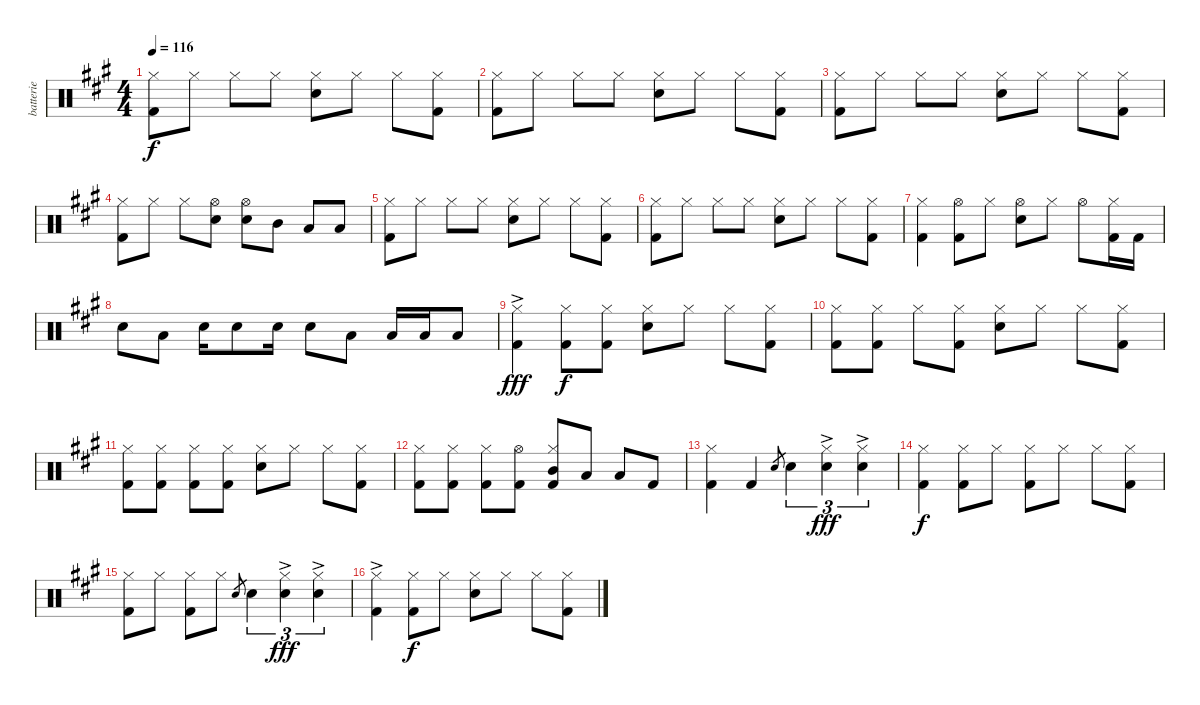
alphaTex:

\track ("batterie" "batterie") {instrument percussion}
\staff {score}
\articulation defaults
\ts (4 4)
\tempo 116
\clef neutral
\ks a
("Kick (hit) 2" "Hi-Hat (closed)").8{dy f} "Hi-Hat (closed)".8 "Hi-Hat (closed)".8 "Hi-Hat (closed)".8 ("Hi-Hat (closed)" "Snare (hit) 2").8 "Hi-Hat (closed)".8 "Hi-Hat (closed)".8 ("Kick (hit) 2" "Hi-Hat (closed)").8 |
("Kick (hit) 2" "Hi-Hat (closed)").8 "Hi-Hat (closed)".8 "Hi-Hat (closed)".8 "Hi-Hat (closed)".8 ("Hi-Hat (closed)" "Snare (hit) 2").8 "Hi-Hat (closed)".8 "Hi-Hat (closed)".8 ("Kick (hit) 2" "Hi-Hat (closed)").8 |
("Kick (hit) 2" "Hi-Hat (closed)").8 "Hi-Hat (closed)".8 "Hi-Hat (closed)".8 "Hi-Hat (closed)".8 ("Hi-Hat (closed)" "Snare (hit) 2").8 "Hi-Hat (closed)".8 "Hi-Hat (closed)".8 ("Kick (hit) 2" "Hi-Hat (closed)").8 |
("Hi-Hat (closed)" "Kick (hit) 2").8 "Hi-Hat (closed)".8 "Hi-Hat (closed)".8 ("Snare (hit) 2" "Hi-Hat (open)").8 ("Hi-Hat (open)" "Snare (hit) 2").8 "Mid Tom (hit)".8 "Low Tom (hit)".8 "Low Floor Tom (hit)".8 |
("Kick (hit) 2" "Hi-Hat (closed)").8 "Hi-Hat (closed)".8 "Hi-Hat (closed)".8 "Hi-Hat (closed)".8 ("Hi-Hat (closed)" "Snare (hit) 2").8 "Hi-Hat (closed)".8 "Hi-Hat (closed)".8 ("Kick (hit) 2" "Hi-Hat (closed)").8 |
("Kick (hit) 2" "Hi-Hat (closed)").8 "Hi-Hat (closed)".8 "Hi-Hat (closed)".8 "Hi-Hat (closed)".8 ("Hi-Hat (closed)" "Snare (hit) 2").8 "Hi-Hat (closed)".8 "Hi-Hat (closed)".8 ("Kick (hit) 2" "Hi-Hat (closed)").8 |
("Hi-Hat (closed)" "Kick (hit) 2").4 ("Hi-Hat (open)" "Kick (hit) 2").8 "Hi-Hat (closed)".8 ("Hi-Hat (open)" "Snare (hit) 2").8 "Hi-Hat (closed)".8 "Hi-Hat (open)".8 ("Kick (hit) 2" "Hi-Hat (closed)").16 "Kick (hit) 2".16 |
"Snare (hit) 2".8 "Low Tom (hit)".8 "Snare (hit) 2".16 "Snare (hit) 2".8 "Snare (hit) 2".16 "Snare (hit) 2".8 "Low Tom (hit)".8 "Low Tom (hit)".16 "Low Tom (hit)".16 "Low Floor Tom (hit)".8 |
("Hi-Hat (closed)"{ac} "Kick (hit) 2").4{dy fff} ("Hi-Hat (closed)" "Kick (hit) 2").8{dy f} ("Hi-Hat (closed)" "Kick (hit) 2").8 ("Hi-Hat (closed)" "Snare (hit) 2").8 "Hi-Hat (closed)".8 "Hi-Hat (closed)".8 ("Hi-Hat (closed)" "Kick (hit) 2").8 |
("Hi-Hat (closed)" "Kick (hit) 2").8 ("Hi-Hat (closed)" "Kick (hit) 2").8 "Hi-Hat (closed)".8 ("Kick (hit) 2" "Hi-Hat (closed)").8 ("Hi-Hat (closed)" "Snare (hit) 2").8 "Hi-Hat (closed)".8 "Hi-Hat (closed)".8 ("Hi-Hat (closed)" "Kick (hit) 2").8 |
("Hi-Hat (closed)" "Kick (hit) 2").8 ("Kick (hit) 2" "Hi-Hat (closed)").8 ("Hi-Hat (closed)" "Kick (hit) 2").8 ("Kick (hit) 2" "Hi-Hat (closed)").8 ("Hi-Hat (closed)" "Snare (hit) 2").8 "Hi-Hat (closed)".8 "Hi-Hat (closed)".8 ("Kick (hit) 2" "Hi-Hat (closed)").8 |
("Hi-Hat (closed)" "Kick (hit) 2").8 ("Kick (hit) 2" "Hi-Hat (closed)").8 ("Hi-Hat (closed)" "Kick (hit) 2").8 ("Kick (hit) 2" "Hi-Hat (open)").8 ("Kick (hit) 2" "Hi-Hat (closed)" "Mid Tom (hit)").8 "Low Tom (hit)".8 "Low Floor Tom (hit)".8 "Kick (hit) 2".8 |
("Hi-Hat (closed)" "Kick (hit) 2").4 "Kick (hit) 2".4 "Snare (hit) 2".8{gr} "Snare (hit) 2".4{tu (3 2)} ("Hi-Hat (closed)"{ac} "Snare (hit) 2").4{tu (3 2) dy fff} ("Hi-Hat (closed)"{ac} "Snare (hit) 2").4{tu (3 2)} |
("Hi-Hat (closed)" "Kick (hit) 2").4{dy f} ("Hi-Hat (closed)" "Kick (hit) 2").8 "Hi-Hat (closed)".8 ("Kick (hit) 2" "Hi-Hat (closed)").8 "Hi-Hat (closed)".8 "Hi-Hat (closed)".8 ("Hi-Hat (closed)" "Kick (hit) 2").8 |
("Kick (hit) 2" "Hi-Hat (closed)").8 "Hi-Hat (closed)".8 ("Hi-Hat (closed)" "Kick (hit) 2").8 "Hi-Hat (closed)".8 "Snare (hit) 2".8{gr} "Snare (hit) 2".4{tu (3 2)} ("Snare (hit) 2"{ac} "Hi-Hat (closed)").4{tu (3 2) dy fff} ("Snare (hit) 2" "Hi-Hat (closed)"{ac}).4{tu (3 2)} |
("Kick (hit) 2"{ac} "Hi-Hat (closed)").4 ("Kick (hit) 2" "Hi-Hat (closed)").8{dy f} "Hi-Hat (closed)".8 ("Hi-Hat (closed)" "Snare (hit) 2").8 "Hi-Hat (closed)".8 "Hi-Hat (closed)".8 ("Kick (hit) 2" "Hi-Hat (closed)").8
